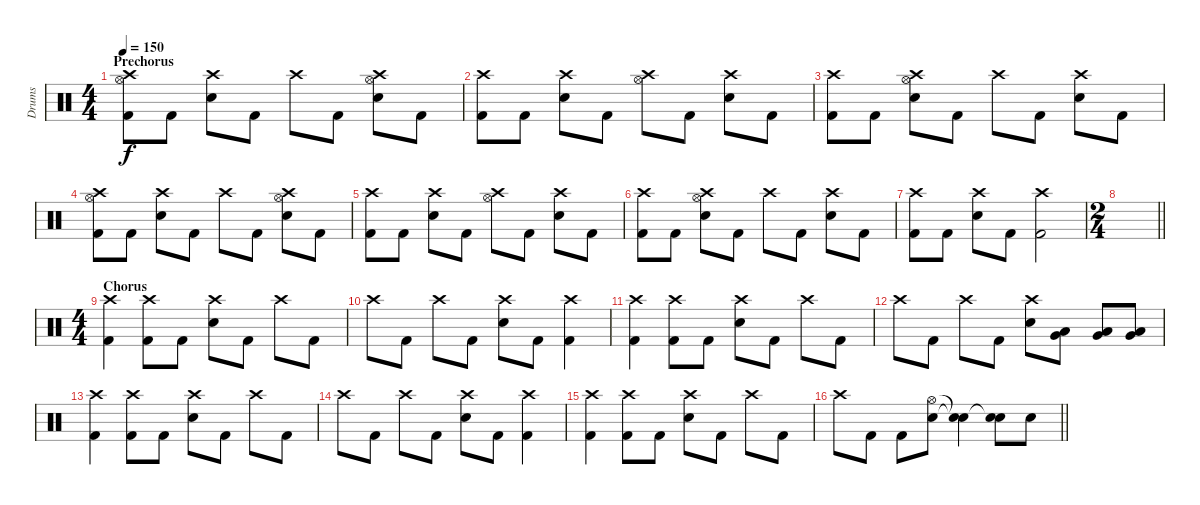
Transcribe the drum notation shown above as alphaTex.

\track ("Drums" "Drums") {instrument percussion}
\staff {score}
\articulation defaults
\ts (4 4)
\section ("" "Prechorus")
\tempo 150
\clef neutral
\ks c
("Crash high (hit)" "Hi-Hat (open)" "Kick (hit) 2").8{dy f} "Kick (hit) 2".8 ("Crash high (hit)" "Snare (hit) 2").8 "Kick (hit) 2".8 "Crash high (hit)".8 "Kick (hit) 2".8 ("Crash high (hit)" "Hi-Hat (open)" "Snare (hit) 2").8 "Kick (hit) 2".8 |
("Crash high (hit)" "Kick (hit) 2").8 "Kick (hit) 2".8 ("Crash high (hit)" "Snare (hit) 2").8 "Kick (hit) 2".8 ("Crash high (hit)" "Hi-Hat (open)").8 "Kick (hit) 2".8 ("Crash high (hit)" "Snare (hit) 2").8 "Kick (hit) 2".8 |
("Crash high (hit)" "Kick (hit) 2").8 "Kick (hit) 2".8 ("Crash high (hit)" "Hi-Hat (open)" "Snare (hit) 2").8 "Kick (hit) 2".8 "Crash high (hit)".8 "Kick (hit) 2".8 ("Crash high (hit)" "Snare (hit) 2").8 "Kick (hit) 2".8 |
("Crash high (hit)" "Hi-Hat (open)" "Kick (hit) 2").8 "Kick (hit) 2".8 ("Crash high (hit)" "Snare (hit) 2").8 "Kick (hit) 2".8 "Crash high (hit)".8 "Kick (hit) 2".8 ("Crash high (hit)" "Hi-Hat (open)" "Snare (hit) 2").8 "Kick (hit) 2".8 |
("Crash high (hit)" "Kick (hit) 2").8 "Kick (hit) 2".8 ("Crash high (hit)" "Snare (hit) 2").8 "Kick (hit) 2".8 ("Crash high (hit)" "Hi-Hat (open)").8 "Kick (hit) 2".8 ("Crash high (hit)" "Snare (hit) 2").8 "Kick (hit) 2".8 |
("Crash high (hit)" "Kick (hit) 2").8 "Kick (hit) 2".8 ("Crash high (hit)" "Hi-Hat (open)" "Snare (hit) 2").8 "Kick (hit) 2".8 "Crash high (hit)".8 "Kick (hit) 2".8 ("Crash high (hit)" "Snare (hit) 2").8 "Kick (hit) 2".8 |
("Crash high (hit)" "Kick (hit) 2").8 "Kick (hit) 2".8 ("Crash high (hit)" "Snare (hit) 2").8 "Kick (hit) 2".8 ("Crash high (hit)" "Kick (hit) 2").2 |
\ts (2 4)
\barLineRight lightlight
|
\ts (4 4)
\section ("" "Chorus")
("Crash high (hit)" "Kick (hit) 2").4 ("Crash high (hit)" "Kick (hit) 2").8 "Kick (hit) 2".8 ("Crash high (hit)" "Snare (hit) 2").8 "Kick (hit) 2".8 "Crash high (hit)".8 "Kick (hit) 2".8 |
"Crash high (hit)".8 "Kick (hit) 2".8 "Crash high (hit)".8 "Kick (hit) 2".8 ("Crash high (hit)" "Snare (hit) 2").8 "Kick (hit) 2".8 ("Crash high (hit)" "Kick (hit) 2").4 |
("Crash high (hit)" "Kick (hit) 2").4 ("Crash high (hit)" "Kick (hit) 2").8 "Kick (hit) 2".8 ("Crash high (hit)" "Snare (hit) 2").8 "Kick (hit) 2".8 "Crash high (hit)".8 "Kick (hit) 2".8 |
"Crash high (hit)".8 "Kick (hit) 2".8 "Crash high (hit)".8 "Kick (hit) 2".8 ("Crash high (hit)" "Snare (hit) 2").8 ("Very Low Tom (hit)" "Low Tom (hit)").8 ("Very Low Tom (hit)" "Low Tom (hit)").8 ("Very Low Tom (hit)" "Low Tom (hit)").8 |
("Crash high (hit)" "Kick (hit) 2").4 ("Crash high (hit)" "Kick (hit) 2").8 "Kick (hit) 2".8 ("Crash high (hit)" "Snare (hit) 2").8 "Kick (hit) 2".8 "Crash high (hit)".8 "Kick (hit) 2".8 |
"Crash high (hit)".8 "Kick (hit) 2".8 "Crash high (hit)".8 "Kick (hit) 2".8 ("Crash high (hit)" "Snare (hit) 2").8 "Kick (hit) 2".8 ("Crash high (hit)" "Kick (hit) 2").4 |
("Crash high (hit)" "Kick (hit) 2").4 ("Crash high (hit)" "Kick (hit) 2").8 "Kick (hit) 2".8 ("Crash high (hit)" "Snare (hit) 2").8 "Kick (hit) 2".8 "Crash high (hit)".8 "Kick (hit) 2".8 |
\barLineRight lightlight "Crash high (hit)".8 "Kick (hit) 2".8 "Kick (hit) 2".8
("Hi-Hat (open)" "Snare (hit) 2").8 ("Snare (hit)"{t} "Snare (hit)"{t}).4 ("Snare (hit)"{t} "Snare (hit) 2").8 "Snare (hit) 2".8
